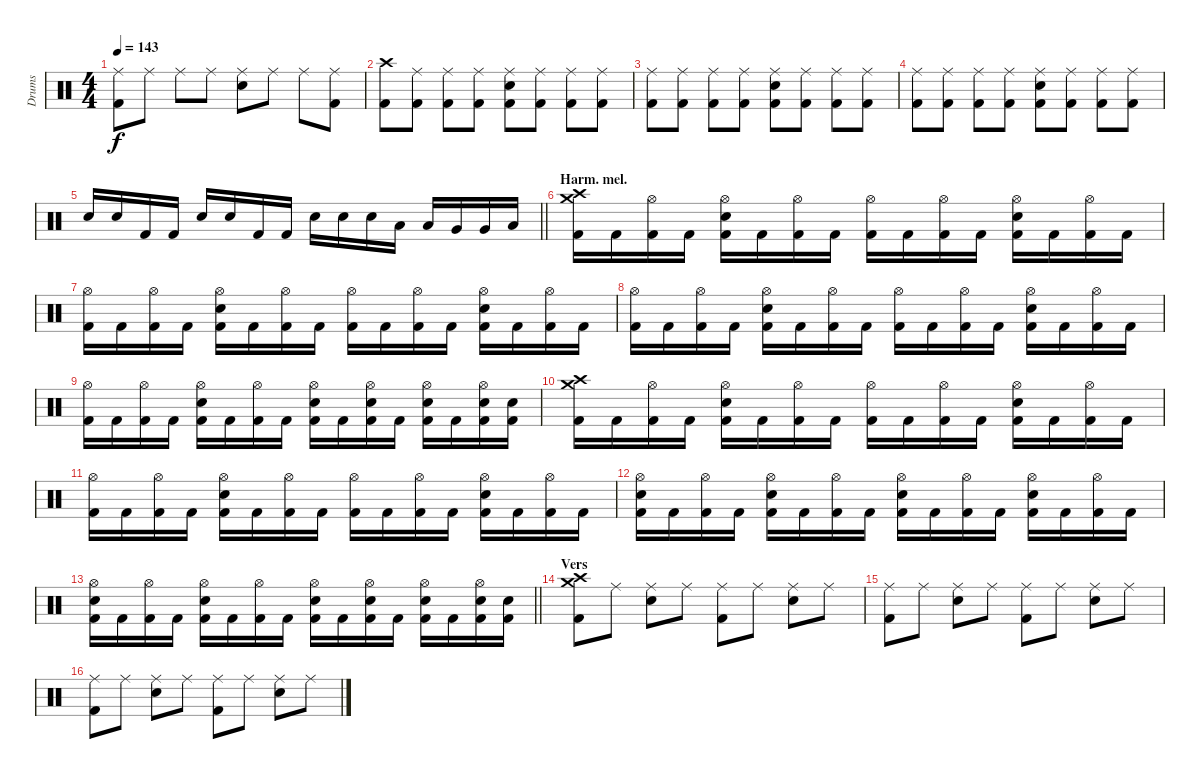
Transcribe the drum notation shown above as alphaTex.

\track ("Drums" "Drums") {instrument percussion}
\staff {score}
\articulation defaults
\ts (4 4)
\tempo 143
\clef neutral
\ks c
("Ride (middle)" "Kick (hit) 2").8{dy f} "Ride (middle)".8 "Ride (middle)".8 "Ride (middle)".8 ("Ride (middle)" "Snare (hit) 2").8 "Ride (middle)".8 "Ride (middle)".8 ("Ride (middle)" "Kick (hit) 2").8 |
("Crash high (hit)" "Kick (hit) 2").8 ("Ride (middle)" "Kick (hit) 2").8 ("Ride (middle)" "Kick (hit) 2").8 ("Ride (middle)" "Kick (hit) 2").8 ("Ride (middle)" "Snare (hit) 2" "Kick (hit) 2").8 ("Ride (middle)" "Kick (hit) 2").8 ("Ride (middle)" "Kick (hit) 2").8 ("Ride (middle)" "Kick (hit) 2").8 |
("Ride (middle)" "Kick (hit) 2").8 ("Ride (middle)" "Kick (hit) 2").8 ("Ride (middle)" "Kick (hit) 2").8 ("Ride (middle)" "Kick (hit) 2").8 ("Ride (middle)" "Snare (hit) 2" "Kick (hit) 2").8 ("Ride (middle)" "Kick (hit) 2").8 ("Ride (middle)" "Kick (hit) 2").8 ("Ride (middle)" "Kick (hit) 2").8 |
("Ride (middle)" "Kick (hit) 2").8 ("Ride (middle)" "Kick (hit) 2").8 ("Ride (middle)" "Kick (hit) 2").8 ("Ride (middle)" "Kick (hit) 2").8 ("Ride (middle)" "Snare (hit) 2" "Kick (hit) 2").8 ("Ride (middle)" "Kick (hit) 2").8 ("Ride (middle)" "Kick (hit) 2").8 ("Ride (middle)" "Kick (hit) 2").8 |
\barLineRight lightlight "Snare (hit) 2".16 "Snare (hit) 2".16 "Kick (hit) 2".16 "Kick (hit) 2".16 "Snare (hit) 2".16 "Snare (hit) 2".16 "Kick (hit) 2".16 "Kick (hit) 2".16 "Snare (hit) 2".16 "Snare (hit) 2".16 "Snare (hit) 2".16 "Low Tom (hit)".16 "Low Tom (hit)".16 "Very Low Tom (hit)".16 "Very Low Tom (hit)".16 "Low Tom (hit)".16
|
\section ("" "Harm. mel.")
("Crash medium (hit)" "Crash high (hit)" "Kick (hit) 2").16 "Kick (hit) 2".16 ("Hi-Hat (open)" "Kick (hit) 2").16 "Kick (hit) 2".16 ("Hi-Hat (open)" "Snare (hit) 2" "Kick (hit) 2").16 "Kick (hit) 2".16 ("Hi-Hat (open)" "Kick (hit) 2").16 "Kick (hit) 2".16 ("Hi-Hat (open)" "Kick (hit) 2").16 "Kick (hit) 2".16 ("Hi-Hat (open)" "Kick (hit) 2").16 "Kick (hit) 2".16 ("Hi-Hat (open)" "Snare (hit) 2" "Kick (hit) 2").16 "Kick (hit) 2".16 ("Hi-Hat (open)" "Kick (hit) 2").16 "Kick (hit) 2".16 |
("Hi-Hat (open)" "Kick (hit) 2").16 "Kick (hit) 2".16 ("Hi-Hat (open)" "Kick (hit) 2").16 "Kick (hit) 2".16 ("Hi-Hat (open)" "Snare (hit) 2" "Kick (hit) 2").16 "Kick (hit) 2".16 ("Hi-Hat (open)" "Kick (hit) 2").16 "Kick (hit) 2".16 ("Hi-Hat (open)" "Kick (hit) 2").16 "Kick (hit) 2".16 ("Hi-Hat (open)" "Kick (hit) 2").16 "Kick (hit) 2".16 ("Hi-Hat (open)" "Snare (hit) 2" "Kick (hit) 2").16 "Kick (hit) 2".16 ("Hi-Hat (open)" "Kick (hit) 2").16 "Kick (hit) 2".16 |
("Hi-Hat (open)" "Kick (hit) 2").16 "Kick (hit) 2".16 ("Hi-Hat (open)" "Kick (hit) 2").16 "Kick (hit) 2".16 ("Hi-Hat (open)" "Snare (hit) 2" "Kick (hit) 2").16 "Kick (hit) 2".16 ("Hi-Hat (open)" "Kick (hit) 2").16 "Kick (hit) 2".16 ("Hi-Hat (open)" "Kick (hit) 2").16 "Kick (hit) 2".16 ("Hi-Hat (open)" "Kick (hit) 2").16 "Kick (hit) 2".16 ("Hi-Hat (open)" "Snare (hit) 2" "Kick (hit) 2").16 "Kick (hit) 2".16 ("Hi-Hat (open)" "Kick (hit) 2").16 "Kick (hit) 2".16 |
("Hi-Hat (open)" "Kick (hit) 2").16 "Kick (hit) 2".16 ("Hi-Hat (open)" "Kick (hit) 2").16 "Kick (hit) 2".16 ("Hi-Hat (open)" "Snare (hit) 2" "Kick (hit) 2").16 "Kick (hit) 2".16 ("Hi-Hat (open)" "Kick (hit) 2").16 "Kick (hit) 2".16 ("Hi-Hat (open)" "Snare (hit) 2" "Kick (hit) 2").16 "Kick (hit) 2".16 ("Hi-Hat (open)" "Snare (hit) 2" "Kick (hit) 2").16 "Kick (hit) 2".16 ("Hi-Hat (open)" "Snare (hit) 2" "Kick (hit) 2").16 "Kick (hit) 2".16 ("Hi-Hat (open)" "Snare (hit) 2" "Kick (hit) 2").16 ("Snare (hit) 2" "Kick (hit) 2").16 |
("Crash medium (hit)" "Crash high (hit)" "Kick (hit) 2").16 "Kick (hit) 2".16 ("Hi-Hat (open)" "Kick (hit) 2").16 "Kick (hit) 2".16 ("Hi-Hat (open)" "Snare (hit) 2" "Kick (hit) 2").16 "Kick (hit) 2".16 ("Hi-Hat (open)" "Kick (hit) 2").16 "Kick (hit) 2".16 ("Hi-Hat (open)" "Kick (hit) 2").16 "Kick (hit) 2".16 ("Hi-Hat (open)" "Kick (hit) 2").16 "Kick (hit) 2".16 ("Hi-Hat (open)" "Snare (hit) 2" "Kick (hit) 2").16 "Kick (hit) 2".16 ("Hi-Hat (open)" "Kick (hit) 2").16 "Kick (hit) 2".16 |
("Hi-Hat (open)" "Kick (hit) 2").16 "Kick (hit) 2".16 ("Hi-Hat (open)" "Kick (hit) 2").16 "Kick (hit) 2".16 ("Hi-Hat (open)" "Snare (hit) 2" "Kick (hit) 2").16 "Kick (hit) 2".16 ("Hi-Hat (open)" "Kick (hit) 2").16 "Kick (hit) 2".16 ("Hi-Hat (open)" "Kick (hit) 2").16 "Kick (hit) 2".16 ("Hi-Hat (open)" "Kick (hit) 2").16 "Kick (hit) 2".16 ("Hi-Hat (open)" "Snare (hit) 2" "Kick (hit) 2").16 "Kick (hit) 2".16 ("Hi-Hat (open)" "Kick (hit) 2").16 "Kick (hit) 2".16 |
("Hi-Hat (open)" "Snare (hit) 2" "Kick (hit) 2").16 "Kick (hit) 2".16 ("Hi-Hat (open)" "Kick (hit) 2").16 "Kick (hit) 2".16 ("Hi-Hat (open)" "Snare (hit) 2" "Kick (hit) 2").16 "Kick (hit) 2".16 ("Hi-Hat (open)" "Kick (hit) 2").16 "Kick (hit) 2".16 ("Hi-Hat (open)" "Snare (hit) 2" "Kick (hit) 2").16 "Kick (hit) 2".16 ("Hi-Hat (open)" "Kick (hit) 2").16 "Kick (hit) 2".16 ("Hi-Hat (open)" "Snare (hit) 2" "Kick (hit) 2").16 "Kick (hit) 2".16 ("Hi-Hat (open)" "Kick (hit) 2").16 "Kick (hit) 2".16 |
\barLineRight lightlight
("Hi-Hat (open)" "Snare (hit) 2" "Kick (hit) 2").16 "Kick (hit) 2".16 ("Hi-Hat (open)" "Kick (hit) 2").16 "Kick (hit) 2".16 ("Hi-Hat (open)" "Snare (hit) 2" "Kick (hit) 2").16 "Kick (hit) 2".16 ("Hi-Hat (open)" "Kick (hit) 2").16 "Kick (hit) 2".16 ("Hi-Hat (open)" "Snare (hit) 2" "Kick (hit) 2").16 "Kick (hit) 2".16 ("Hi-Hat (open)" "Snare (hit) 2" "Kick (hit) 2").16 "Kick (hit) 2".16 ("Hi-Hat (open)" "Snare (hit) 2" "Kick (hit) 2").16 "Kick (hit) 2".16 ("Hi-Hat (open)" "Snare (hit) 2" "Kick (hit) 2").16 ("Snare (hit) 2" "Kick (hit) 2").16 |
\section ("" "Vers")
("Crash medium (hit)" "Crash high (hit)" "Kick (hit) 2").8 "Ride (middle)".8 ("Ride (middle)" "Snare (hit) 2").8 "Ride (middle)".8 ("Ride (middle)" "Kick (hit) 2").8 "Ride (middle)".8 ("Ride (middle)" "Snare (hit) 2").8 "Ride (middle)".8 |
("Ride (middle)" "Kick (hit) 2").8 "Ride (middle)".8 ("Ride (middle)" "Snare (hit) 2").8 "Ride (middle)".8 ("Ride (middle)" "Kick (hit) 2").8 "Ride (middle)".8 ("Ride (middle)" "Snare (hit) 2").8 "Ride (middle)".8 |
("Ride (middle)" "Kick (hit) 2").8 "Ride (middle)".8 ("Ride (middle)" "Snare (hit) 2").8 "Ride (middle)".8 ("Ride (middle)" "Kick (hit) 2").8 "Ride (middle)".8 ("Ride (middle)" "Snare (hit) 2").8 "Ride (middle)".8
